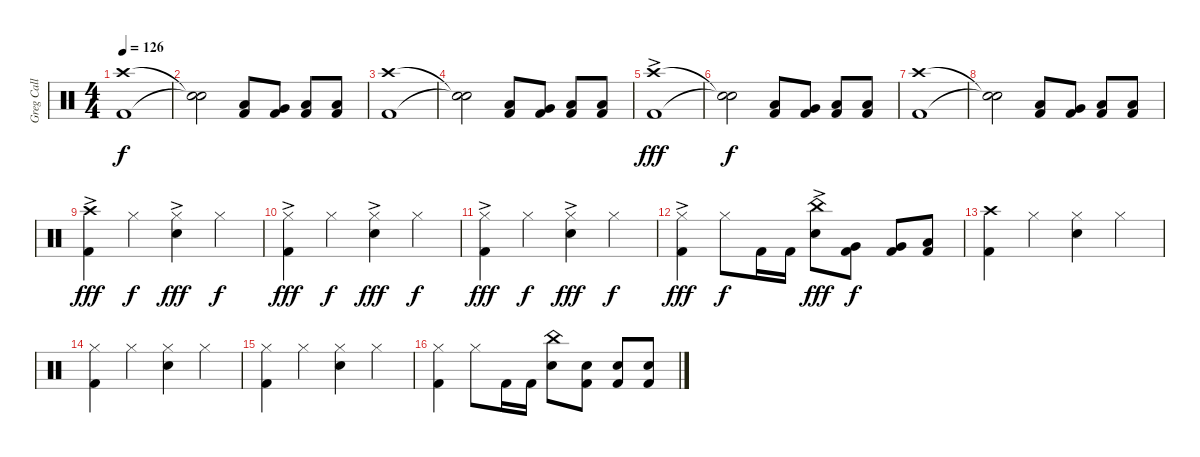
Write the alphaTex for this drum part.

\track ("Greg Call (Drums)" "Greg Call ") {instrument percussion}
\staff {score}
\articulation defaults
\ts (4 4)
\tempo 126
\clef neutral
\ks c
("Crash high (hit)" "Kick (hit) 2").1{dy f} |
("Snare (hit)"{t} "Snare (hit)"{t}).2 ("Low Tom (hit)" "Kick (hit) 2").8 ("Very Low Tom (hit)" "Kick (hit) 2").8 ("Low Floor Tom (hit)" "Kick (hit) 2").8 ("Low Floor Tom (hit)" "Kick (hit) 2").8 |
("Crash high (hit)" "Kick (hit) 2").1 |
("Snare (hit)"{t} "Snare (hit)"{t}).2 ("Low Tom (hit)" "Kick (hit) 2").8 ("Very Low Tom (hit)" "Kick (hit) 2").8 ("Low Floor Tom (hit)" "Kick (hit) 2").8 ("Low Floor Tom (hit)" "Kick (hit) 2").8 |
("Crash high (hit)" "Kick (hit) 2"{ac}).1{dy fff} |
("Snare (hit)"{t} "Snare (hit)"{t}).2{dy f} ("Low Tom (hit)" "Kick (hit) 2").8 ("Very Low Tom (hit)" "Kick (hit) 2").8 ("Low Floor Tom (hit)" "Kick (hit) 2").8 ("Low Floor Tom (hit)" "Kick (hit) 2").8 |
("Crash high (hit)" "Kick (hit) 2").1 |
("Snare (hit)"{t} "Snare (hit)"{t}).2 ("Low Tom (hit)" "Kick (hit) 2").8 ("Very Low Tom (hit)" "Kick (hit) 2").8 ("Low Floor Tom (hit)" "Kick (hit) 2").8 ("Low Floor Tom (hit)" "Kick (hit) 2").8 |
("Crash high (hit)"{ac} "Kick (hit) 2").4{dy fff} "Hi-Hat (closed)".4{dy f} ("Hi-Hat (closed)"{ac} "Snare (hit) 2").4{dy fff} "Hi-Hat (closed)".4{dy f} |
("Hi-Hat (closed)"{ac} "Kick (hit) 2").4{dy fff} "Hi-Hat (closed)".4{dy f} ("Hi-Hat (closed)"{ac} "Snare (hit) 2").4{dy fff} "Hi-Hat (closed)".4{dy f} |
("Hi-Hat (closed)"{ac} "Kick (hit) 2").4{dy fff} "Hi-Hat (closed)".4{dy f} ("Hi-Hat (closed)"{ac} "Snare (hit) 2").4{dy fff} "Hi-Hat (closed)".4{dy f} |
("Hi-Hat (closed)"{ac} "Kick (hit) 2").4{dy fff} "Hi-Hat (closed)".8{dy f} "Kick (hit) 2".16 "Kick (hit) 2".16 ("China (hit)" "Snare (hit) 2"{ac}).8{dy fff} ("Very Low Tom (hit)" "Kick (hit) 2").8{dy f} ("Very Low Tom (hit)" "Kick (hit) 2").8 ("Low Floor Tom (hit)" "Kick (hit) 2").8 |
("Crash high (hit)" "Kick (hit) 2").4 "Hi-Hat (closed)".4 ("Hi-Hat (closed)" "Snare (hit) 2").4 "Hi-Hat (closed)".4 |
("Hi-Hat (closed)" "Kick (hit) 2").4 "Hi-Hat (closed)".4 ("Hi-Hat (closed)" "Snare (hit) 2").4 "Hi-Hat (closed)".4 |
("Hi-Hat (closed)" "Kick (hit) 2").4 "Hi-Hat (closed)".4 ("Hi-Hat (closed)" "Snare (hit) 2").4 "Hi-Hat (closed)".4 |
("Hi-Hat (closed)" "Kick (hit) 2").4 "Hi-Hat (closed)".8 "Kick (hit) 2".16 "Kick (hit) 2".16 ("China (hit)" "Snare (hit) 2").8 ("Snare (hit) 2" "Kick (hit) 2").8 ("Snare (hit) 2" "Kick (hit) 2").8 ("Snare (hit) 2" "Kick (hit) 2").8
